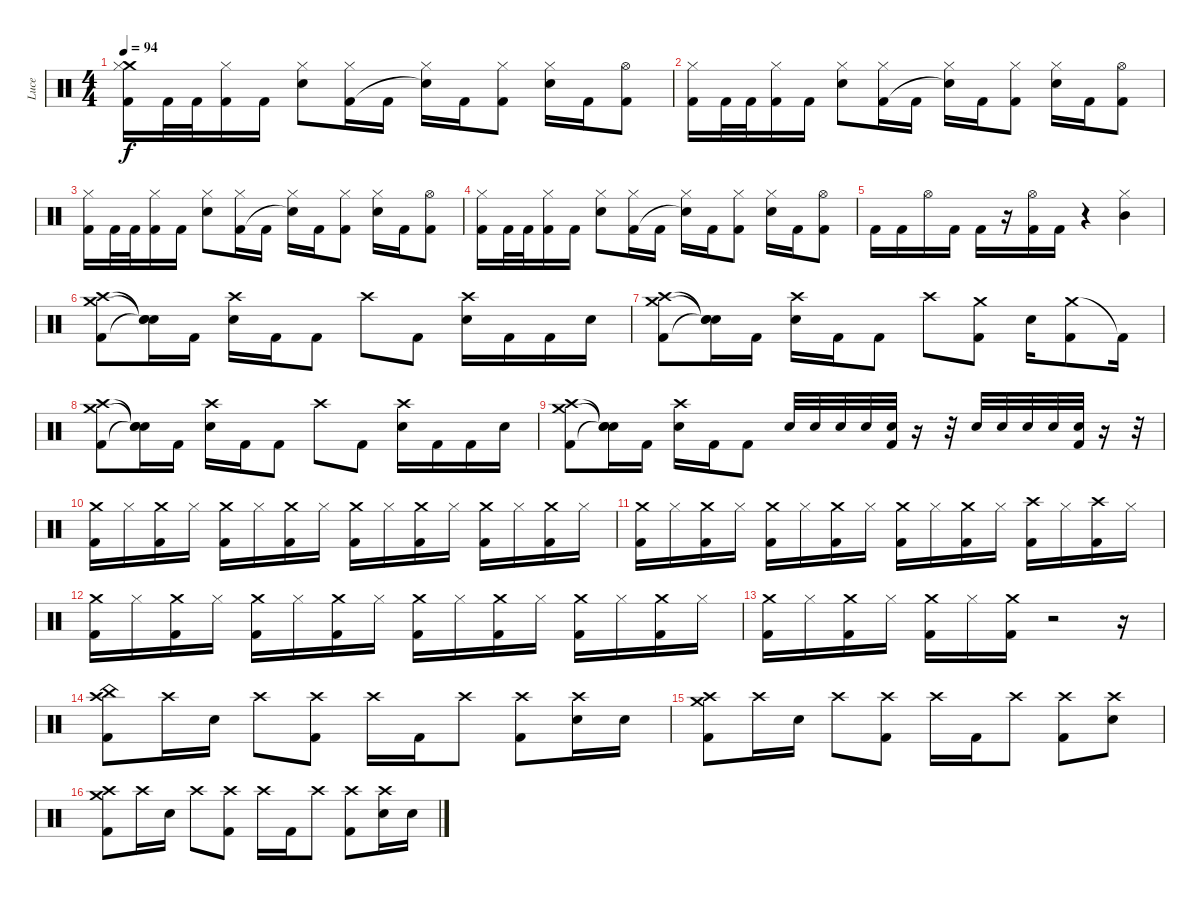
\track ("Luce" "Luce") {instrument percussion}
\staff {score}
\articulation defaults
\ts (4 4)
\tempo 94
\clef neutral
\ks c
("Crash medium (hit)" "Hi-Hat (closed)" "Kick (hit) 2").16{dy f} "Kick (hit) 2".32 "Kick (hit) 2".32 ("Hi-Hat (closed)" "Kick (hit) 2").16 "Kick (hit) 2".16 ("Hi-Hat (closed)" "Electric Snare (hit)").8 ("Hi-Hat (closed)" "Kick (hit) 2").16 "Kick (hit) 2".16 ("Hi-Hat (closed)" "Snare (hit)"{t}).16 "Kick (hit) 2".16 ("Hi-Hat (closed)" "Kick (hit) 2").8 ("Hi-Hat (closed)" "Electric Snare (hit)").16 "Kick (hit) 2".16 ("Hi-Hat (open)" "Kick (hit) 2").8 |
("Hi-Hat (closed)" "Kick (hit) 2").16 "Kick (hit) 2".32 "Kick (hit) 2".32 ("Hi-Hat (closed)" "Kick (hit) 2").16 "Kick (hit) 2".16 ("Hi-Hat (closed)" "Electric Snare (hit)").8 ("Hi-Hat (closed)" "Kick (hit) 2").16 "Kick (hit) 2".16 ("Hi-Hat (closed)" "Snare (hit)"{t}).16 "Kick (hit) 2".16 ("Hi-Hat (closed)" "Kick (hit) 2").8 ("Hi-Hat (closed)" "Electric Snare (hit)").16 "Kick (hit) 2".16 ("Hi-Hat (open)" "Kick (hit) 2").8 |
("Hi-Hat (closed)" "Kick (hit) 2").16 "Kick (hit) 2".32 "Kick (hit) 2".32 ("Hi-Hat (closed)" "Kick (hit) 2").16 "Kick (hit) 2".16 ("Hi-Hat (closed)" "Electric Snare (hit)").8 ("Hi-Hat (closed)" "Kick (hit) 2").16 "Kick (hit) 2".16 ("Hi-Hat (closed)" "Snare (hit)"{t}).16 "Kick (hit) 2".16 ("Hi-Hat (closed)" "Kick (hit) 2").8 ("Hi-Hat (closed)" "Electric Snare (hit)").16 "Kick (hit) 2".16 ("Hi-Hat (open)" "Kick (hit) 2").8 |
("Hi-Hat (closed)" "Kick (hit) 2").16 "Kick (hit) 2".32 "Kick (hit) 2".32 ("Hi-Hat (closed)" "Kick (hit) 2").16 "Kick (hit) 2".16 ("Hi-Hat (closed)" "Electric Snare (hit)").8 ("Hi-Hat (closed)" "Kick (hit) 2").16 "Kick (hit) 2".16 ("Hi-Hat (closed)" "Snare (hit)"{t}).16 "Kick (hit) 2".16 ("Hi-Hat (closed)" "Kick (hit) 2").8 ("Hi-Hat (closed)" "Electric Snare (hit)").16 "Kick (hit) 2".16 ("Hi-Hat (open)" "Kick (hit) 2").8 |
"Kick (hit) 2".16 "Kick (hit) 2".16 "Hi-Hat (open)".16 "Kick (hit) 2".16 "Kick (hit) 2".16 r.16 ("Hi-Hat (open)" "Kick (hit) 2").16 "Kick (hit) 2".16 r.4 ("Mid Tom (hit)" "Hi-Hat (closed)").4 |
("Crash high (hit)" "Crash medium (hit)" "Kick (hit) 2").8 ("Snare (hit)"{t} "Snare (hit)"{t} "Snare (hit)"{t}).16 "Kick (hit) 2".16 ("Crash high (hit)" "Electric Snare (hit)").16 "Kick (hit) 2".16 "Kick (hit) 2".8 "Crash high (hit)".8 "Kick (hit) 2".8 ("Crash high (hit)" "Electric Snare (hit)").16 "Kick (hit) 2".16 "Kick (hit) 2".16 "Electric Snare (hit)".16 |
("Crash high (hit)" "Crash medium (hit)" "Kick (hit) 2").8 ("Snare (hit)"{t} "Snare (hit)"{t} "Snare (hit)"{t}).16 "Kick (hit) 2".16 ("Crash high (hit)" "Electric Snare (hit)").16 "Kick (hit) 2".16 "Kick (hit) 2".8 "Crash high (hit)".8 ("Crash medium (hit)" "Kick (hit) 2").8 "Electric Snare (hit)".16 ("Crash medium (hit)" "Kick (hit) 2").8 "Kick (hit) 2"{t}.16 |
("Crash high (hit)" "Crash medium (hit)" "Kick (hit) 2").8 ("Snare (hit)"{t} "Snare (hit)"{t} "Snare (hit)"{t}).16 "Kick (hit) 2".16 ("Crash high (hit)" "Electric Snare (hit)").16 "Kick (hit) 2".16 "Kick (hit) 2".8 "Crash high (hit)".8 "Kick (hit) 2".8 ("Crash high (hit)" "Electric Snare (hit)").16 "Kick (hit) 2".16 "Kick (hit) 2".16 "Electric Snare (hit)".16 |
("Crash high (hit)" "Crash medium (hit)" "Kick (hit) 2").8 ("Snare (hit)"{t} "Snare (hit)"{t} "Snare (hit)"{t}).16 "Kick (hit) 2".16 ("Crash high (hit)" "Electric Snare (hit)").16 "Kick (hit) 2".16 "Kick (hit) 2".8 "Electric Snare (hit)".32 "Electric Snare (hit)".32 "Electric Snare (hit)".32 "Electric Snare (hit)".32 ("Electric Snare (hit)" "Kick (hit) 2").32 r.16 r.32 "Electric Snare (hit)".32 "Electric Snare (hit)".32 "Electric Snare (hit)".32 "Electric Snare (hit)".32 ("Electric Snare (hit)" "Kick (hit) 2").32 r.16 r.32 |
("Crash medium (hit)" "Kick (hit) 2").16 "Hi-Hat (closed)".16 ("Crash medium (hit)" "Kick (hit) 2").16 "Hi-Hat (closed)".16 ("Crash medium (hit)" "Kick (hit) 2").16 "Hi-Hat (closed)".16 ("Crash medium (hit)" "Kick (hit) 2").16 "Hi-Hat (closed)".16 ("Crash medium (hit)" "Kick (hit) 2").16 "Hi-Hat (closed)".16 ("Crash medium (hit)" "Kick (hit) 2").16 "Hi-Hat (closed)".16 ("Crash medium (hit)" "Kick (hit) 2").16 "Hi-Hat (closed)".16 ("Crash medium (hit)" "Kick (hit) 2").16 "Hi-Hat (closed)".16 |
("Crash medium (hit)" "Kick (hit) 2").16 "Hi-Hat (closed)".16 ("Crash medium (hit)" "Kick (hit) 2").16 "Hi-Hat (closed)".16 ("Crash medium (hit)" "Kick (hit) 2").16 "Hi-Hat (closed)".16 ("Crash medium (hit)" "Kick (hit) 2").16 "Hi-Hat (closed)".16 ("Crash medium (hit)" "Kick (hit) 2").16 "Hi-Hat (closed)".16 ("Crash medium (hit)" "Kick (hit) 2").16 "Hi-Hat (closed)".16 ("Crash high (hit)" "Kick (hit) 2").16 "Hi-Hat (closed)".16 ("Crash high (hit)" "Kick (hit) 2").16 "Hi-Hat (closed)".16 |
("Crash medium (hit)" "Kick (hit) 2").16 "Hi-Hat (closed)".16 ("Crash medium (hit)" "Kick (hit) 2").16 "Hi-Hat (closed)".16 ("Crash medium (hit)" "Kick (hit) 2").16 "Hi-Hat (closed)".16 ("Crash medium (hit)" "Kick (hit) 2").16 "Hi-Hat (closed)".16 ("Crash medium (hit)" "Kick (hit) 2").16 "Hi-Hat (closed)".16 ("Crash medium (hit)" "Kick (hit) 2").16 "Hi-Hat (closed)".16 ("Crash medium (hit)" "Kick (hit) 2").16 "Hi-Hat (closed)".16 ("Crash medium (hit)" "Kick (hit) 2").16 "Hi-Hat (closed)".16 |
("Crash medium (hit)" "Kick (hit) 2").16 "Hi-Hat (closed)".16 ("Crash medium (hit)" "Kick (hit) 2").16 "Hi-Hat (closed)".16 ("Crash medium (hit)" "Kick (hit) 2").16 "Hi-Hat (closed)".16 ("Crash medium (hit)" "Kick (hit) 2").16 r.2 r.16 |
("Crash high (hit)" "China (hit)" "Kick (hit) 2").8 "Crash high (hit)".16 "Electric Snare (hit)".16 "Crash high (hit)".8 ("Crash high (hit)" "Kick (hit) 2").8 "Crash high (hit)".16 "Kick (hit) 2".16 "Crash high (hit)".8 ("Crash high (hit)" "Kick (hit) 2").8 ("Crash high (hit)" "Electric Snare (hit)").16 "Electric Snare (hit)".16 |
("Crash high (hit)" "Crash medium (hit)" "Kick (hit) 2").8 "Crash high (hit)".16 "Electric Snare (hit)".16 "Crash high (hit)".8 ("Crash high (hit)" "Kick (hit) 2").8 "Crash high (hit)".16 "Kick (hit) 2".16 "Crash high (hit)".8 ("Crash high (hit)" "Kick (hit) 2").8 ("Crash high (hit)" "Electric Snare (hit)").8 |
("Crash high (hit)" "Crash medium (hit)" "Kick (hit) 2").8 "Crash high (hit)".16 "Electric Snare (hit)".16 "Crash high (hit)".8 ("Crash high (hit)" "Kick (hit) 2").8 "Crash high (hit)".16 "Kick (hit) 2".16 "Crash high (hit)".8 ("Crash high (hit)" "Kick (hit) 2").8 ("Crash high (hit)" "Electric Snare (hit)").16 "Electric Snare (hit)".16
